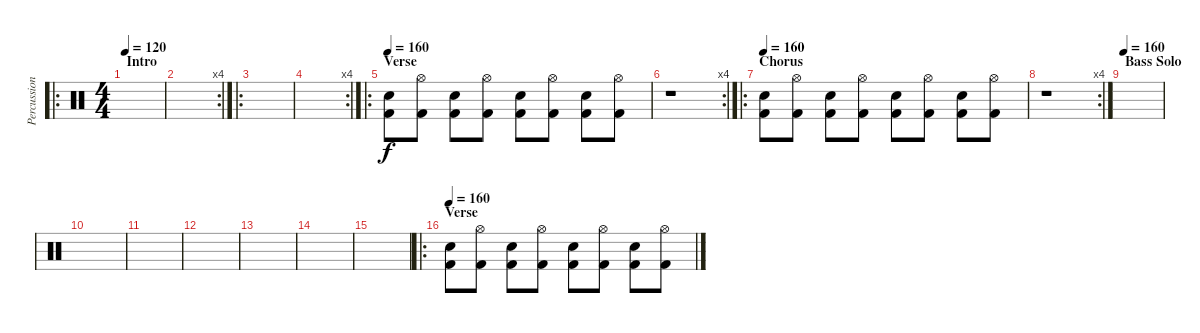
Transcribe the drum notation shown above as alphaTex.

\track ("Percussion" "Percussion") {instrument percussion}
\staff {score}
\articulation defaults
\ro
\ts (4 4)
\section ("" "Intro")
\tempo 120
\tempo 160
\tempo 120
\clef neutral
\ks c
|
\rc 4
|
\ro
|
\rc 4
|
\ro
\section ("" "Verse")
\tempo 160
("Electric Snare (hit)" "Kick (hit) 2").8 ("Hi-Hat (open)" "Kick (hit) 2").8 ("Electric Snare (hit)" "Kick (hit) 2").8 ("Hi-Hat (open)" "Kick (hit) 2").8 ("Electric Snare (hit)" "Kick (hit) 2").8 ("Hi-Hat (open)" "Kick (hit) 2").8 ("Electric Snare (hit)" "Kick (hit) 2").8 ("Hi-Hat (open)" "Kick (hit) 2").8 |
\rc 4
r.1 |
\ro
\section ("" "Chorus")
\tempo 160
("Electric Snare (hit)" "Kick (hit) 2").8 ("Hi-Hat (open)" "Kick (hit) 2").8 ("Electric Snare (hit)" "Kick (hit) 2").8 ("Hi-Hat (open)" "Kick (hit) 2").8 ("Electric Snare (hit)" "Kick (hit) 2").8 ("Hi-Hat (open)" "Kick (hit) 2").8 ("Electric Snare (hit)" "Kick (hit) 2").8 ("Hi-Hat (open)" "Kick (hit) 2").8 |
\rc 4
r.1 |
\section ("" "Bass Solo")
\tempo 160
|
|
|
|
|
|
|
\ro
\section ("" "Verse")
\tempo 160
("Electric Snare (hit)" "Kick (hit) 2").8 ("Hi-Hat (open)" "Kick (hit) 2").8 ("Electric Snare (hit)" "Kick (hit) 2").8 ("Hi-Hat (open)" "Kick (hit) 2").8 ("Electric Snare (hit)" "Kick (hit) 2").8 ("Hi-Hat (open)" "Kick (hit) 2").8 ("Electric Snare (hit)" "Kick (hit) 2").8 ("Hi-Hat (open)" "Kick (hit) 2").8
